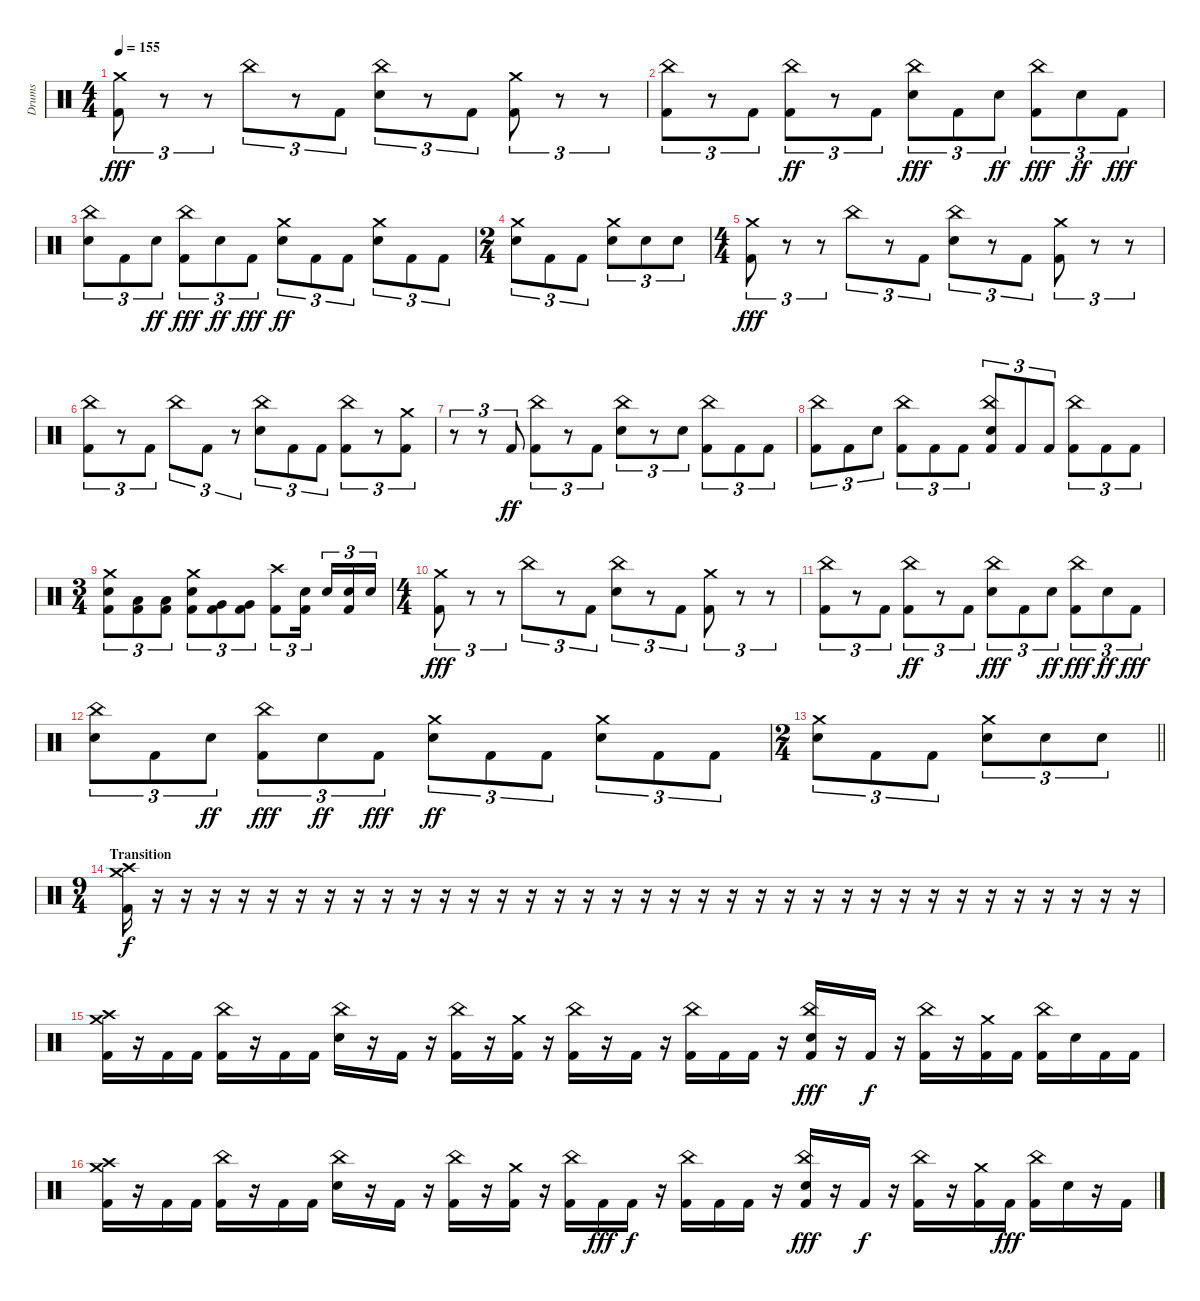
\track ("Drums" "Drums") {instrument percussion}
\staff {score}
\articulation defaults
\ts (4 4)
\tempo 155
\clef neutral
\ks c
("Crash medium (hit)" "Kick (hit) 2").8{tu (3 2) dy fff} r.8{tu (3 2)} r.8{tu (3 2)} "China (hit)".8{tu (3 2)} r.8{tu (3 2)} "Kick (hit) 2".8{tu (3 2)} ("China (hit)" "Electric Snare (hit)").8{tu (3 2)} r.8{tu (3 2)} "Kick (hit) 2".8{tu (3 2)} ("Crash medium (hit)" "Kick (hit) 2").8{tu (3 2)} r.8{tu (3 2)} r.8{tu (3 2)} |
("China (hit)" "Kick (hit) 2").8{tu (3 2)} r.8{tu (3 2)} "Kick (hit) 2".8{tu (3 2)} ("China (hit)" "Kick (hit) 2").8{tu (3 2) dy ff} r.8{tu (3 2)} "Kick (hit) 2".8{tu (3 2)} ("China (hit)" "Electric Snare (hit)").8{tu (3 2) dy fff} "Kick (hit) 2".8{tu (3 2)} "Electric Snare (hit)".8{tu (3 2) dy ff} ("China (hit)" "Kick (hit) 2").8{tu (3 2) dy fff} "Electric Snare (hit)".8{tu (3 2) dy ff} "Kick (hit) 2".8{tu (3 2) dy fff} |
("China (hit)" "Electric Snare (hit)").8{tu (3 2)} "Kick (hit) 2".8{tu (3 2)} "Electric Snare (hit)".8{tu (3 2) dy ff} ("China (hit)" "Kick (hit) 2").8{tu (3 2) dy fff} "Electric Snare (hit)".8{tu (3 2) dy ff} "Kick (hit) 2".8{tu (3 2) dy fff} ("Crash medium (hit)" "Electric Snare (hit)").8{tu (3 2) dy ff} "Kick (hit) 2".8{tu (3 2)} "Kick (hit) 2".8{tu (3 2)} ("Crash medium (hit)" "Electric Snare (hit)").8{tu (3 2)} "Kick (hit) 2".8{tu (3 2)} "Kick (hit) 2".8{tu (3 2)} |
\ts (2 4)
("Crash medium (hit)" "Electric Snare (hit)").8{tu (3 2)} "Kick (hit) 2".8{tu (3 2)} "Kick (hit) 2".8{tu (3 2)} ("Crash medium (hit)" "Electric Snare (hit)").8{tu (3 2)} "Electric Snare (hit)".8{tu (3 2)} "Electric Snare (hit)".8{tu (3 2)} |
\ts (4 4)
("Crash medium (hit)" "Kick (hit) 2").8{tu (3 2) dy fff} r.8{tu (3 2)} r.8{tu (3 2)} "China (hit)".8{tu (3 2)} r.8{tu (3 2)} "Kick (hit) 2".8{tu (3 2)} ("China (hit)" "Electric Snare (hit)").8{tu (3 2)} r.8{tu (3 2)} "Kick (hit) 2".8{tu (3 2)} ("Crash medium (hit)" "Kick (hit) 2").8{tu (3 2)} r.8{tu (3 2)} r.8{tu (3 2)} |
("China (hit)" "Kick (hit) 2").8{tu (3 2)} r.8{tu (3 2)} "Kick (hit) 2".8{tu (3 2)} "China (hit)".8{tu (3 2)} "Kick (hit) 2".8{tu (3 2)} r.8{tu (3 2)} ("China (hit)" "Electric Snare (hit)").8{tu (3 2)} "Kick (hit) 2".8{tu (3 2)} "Kick (hit) 2".8{tu (3 2)} ("China (hit)" "Kick (hit) 2").8{tu (3 2)} r.8{tu (3 2)} ("Crash medium (hit)" "Kick (hit) 2").8{tu (3 2)} |
r.8{tu (3 2)} r.8{tu (3 2)} "Kick (hit) 2".8{tu (3 2) dy ff} ("China (hit)" "Kick (hit) 2").8{tu (3 2)} r.8{tu (3 2)} "Kick (hit) 2".8{tu (3 2)} ("China (hit)" "Electric Snare (hit)").8{tu (3 2)} r.8{tu (3 2)} "Electric Snare (hit)".8{tu (3 2)} ("China (hit)" "Kick (hit) 2").8{tu (3 2)} "Kick (hit) 2".8{tu (3 2)} "Kick (hit) 2".8{tu (3 2)} |
("China (hit)" "Kick (hit) 2").8{tu (3 2)} "Kick (hit) 2".8{tu (3 2)} "Electric Snare (hit)".8{tu (3 2)} ("China (hit)" "Kick (hit) 2").8{tu (3 2)} "Kick (hit) 2".8{tu (3 2)} "Kick (hit) 2".8{tu (3 2)} ("China (hit)" "Electric Snare (hit)" "Kick (hit) 2").8{tu (3 2)} "Kick (hit) 2".8{tu (3 2)} "Kick (hit) 2".8{tu (3 2)} ("China (hit)" "Kick (hit) 2").8{tu (3 2)} "Kick (hit) 2".8{tu (3 2)} "Kick (hit) 2".8{tu (3 2)} |
\ts (3 4)
("Crash medium (hit)" "Electric Snare (hit)" "Kick (hit) 2").8{tu (3 2)} ("Low Tom (hit)" "Kick (hit) 2").8{tu (3 2)} ("Low Tom (hit)" "Kick (hit) 2").8{tu (3 2)} ("Crash medium (hit)" "Electric Snare (hit)" "Kick (hit) 2").8{tu (3 2)} ("Very Low Tom (hit)" "Kick (hit) 2").8{tu (3 2)} ("Very Low Tom (hit)" "Kick (hit) 2").8{tu (3 2)} ("Crash high (hit)" "Kick (hit) 2").8{tu (3 2)} ("Electric Snare (hit)" "Kick (hit) 2").16{tu (3 2) beam splitsecondary} "Electric Snare (hit)".16{tu (3 2)} ("Electric Snare (hit)" "Kick (hit) 2").16{tu (3 2)} "Electric Snare (hit)".16{tu (3 2)} |
\ts (4 4)
("Crash medium (hit)" "Kick (hit) 2").8{tu (3 2) dy fff} r.8{tu (3 2)} r.8{tu (3 2)} "China (hit)".8{tu (3 2)} r.8{tu (3 2)} "Kick (hit) 2".8{tu (3 2)} ("China (hit)" "Electric Snare (hit)").8{tu (3 2)} r.8{tu (3 2)} "Kick (hit) 2".8{tu (3 2)} ("Crash medium (hit)" "Kick (hit) 2").8{tu (3 2)} r.8{tu (3 2)} r.8{tu (3 2)} |
("China (hit)" "Kick (hit) 2").8{tu (3 2)} r.8{tu (3 2)} "Kick (hit) 2".8{tu (3 2)} ("China (hit)" "Kick (hit) 2").8{tu (3 2) dy ff} r.8{tu (3 2)} "Kick (hit) 2".8{tu (3 2)} ("China (hit)" "Electric Snare (hit)").8{tu (3 2) dy fff} "Kick (hit) 2".8{tu (3 2)} "Electric Snare (hit)".8{tu (3 2) dy ff} ("China (hit)" "Kick (hit) 2").8{tu (3 2) dy fff} "Electric Snare (hit)".8{tu (3 2) dy ff} "Kick (hit) 2".8{tu (3 2) dy fff} |
("China (hit)" "Electric Snare (hit)").8{tu (3 2)} "Kick (hit) 2".8{tu (3 2)} "Electric Snare (hit)".8{tu (3 2) dy ff} ("China (hit)" "Kick (hit) 2").8{tu (3 2) dy fff} "Electric Snare (hit)".8{tu (3 2) dy ff} "Kick (hit) 2".8{tu (3 2) dy fff} ("Crash medium (hit)" "Electric Snare (hit)").8{tu (3 2) dy ff} "Kick (hit) 2".8{tu (3 2)} "Kick (hit) 2".8{tu (3 2)} ("Crash medium (hit)" "Electric Snare (hit)").8{tu (3 2)} "Kick (hit) 2".8{tu (3 2)} "Kick (hit) 2".8{tu (3 2)} |
\ts (2 4)
\barLineRight lightlight
("Crash medium (hit)" "Electric Snare (hit)").8{tu (3 2)} "Kick (hit) 2".8{tu (3 2)} "Kick (hit) 2".8{tu (3 2)} ("Crash medium (hit)" "Electric Snare (hit)").8{tu (3 2)} "Electric Snare (hit)".8{tu (3 2)} "Electric Snare (hit)".8{tu (3 2)} |
\ts (9 4)
\section ("" "Transition")
("Crash high (hit)" "Crash medium (hit)" "Kick (hit) 2").16{dy f} r.16 r.16 r.16 r.16 r.16 r.16 r.16 r.16 r.16 r.16 r.16 r.16 r.16 r.16 r.16 r.16 r.16 r.16 r.16 r.16 r.16 r.16 r.16 r.16 r.16 r.16 r.16 r.16 r.16 r.16 r.16 r.16 r.16 r.16 r.16 |
("Crash high (hit)" "Crash medium (hit)" "Kick (hit) 2").16 r.16 "Kick (hit) 2".16 "Kick (hit) 2".16 ("China (hit)" "Kick (hit) 2").16 r.16 "Kick (hit) 2".16 "Kick (hit) 2".16 ("China (hit)" "Electric Snare (hit)").16 r.16 "Kick (hit) 2".16 r.16 ("China (hit)" "Kick (hit) 2").16 r.16 ("Crash medium (hit)" "Kick (hit) 2").16 r.16 ("China (hit)" "Kick (hit) 2").16 r.16 "Kick (hit) 2".16 r.16 ("China (hit)" "Kick (hit) 2").16 "Kick (hit) 2".16 "Kick (hit) 2".16 r.16 ("China (hit)" "Electric Snare (hit)" "Kick (hit) 2").16{dy fff} r.16 "Kick (hit) 2".16{dy f} r.16 ("China (hit)" "Kick (hit) 2").16 r.16 ("Crash medium (hit)" "Kick (hit) 2").16 "Kick (hit) 2".16 ("China (hit)" "Kick (hit) 2").16 "Electric Snare (hit)".16 "Kick (hit) 2".16 "Kick (hit) 2".16 |
("Crash high (hit)" "Crash medium (hit)" "Kick (hit) 2").16 r.16 "Kick (hit) 2".16 "Kick (hit) 2".16 ("China (hit)" "Kick (hit) 2").16 r.16 "Kick (hit) 2".16 "Kick (hit) 2".16 ("China (hit)" "Electric Snare (hit)").16 r.16 "Kick (hit) 2".16 r.16 ("China (hit)" "Kick (hit) 2").16 r.16 ("Crash medium (hit)" "Kick (hit) 2").16 r.16 ("China (hit)" "Kick (hit) 2").16 "Kick (hit) 2".16{dy fff} "Kick (hit) 2".16{dy f} r.16 ("China (hit)" "Kick (hit) 2").16 "Kick (hit) 2".16 "Kick (hit) 2".16 r.16 ("China (hit)" "Electric Snare (hit)" "Kick (hit) 2").16{dy fff} r.16 "Kick (hit) 2".16{dy f} r.16 ("China (hit)" "Kick (hit) 2").16 r.16 ("Crash medium (hit)" "Kick (hit) 2").16 "Kick (hit) 2".16{dy fff} ("China (hit)" "Kick (hit) 2").16 "Electric Snare (hit)".16 r.16 "Kick (hit) 2".16
